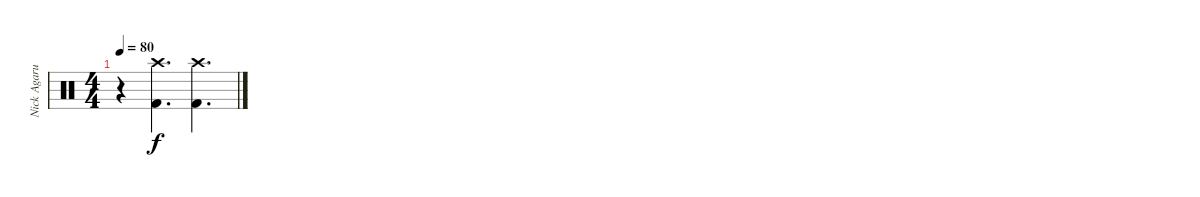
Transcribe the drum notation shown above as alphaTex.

\track ("Nick Agarua" "Nick Agaru") {instrument percussion}
\staff {score}
\articulation defaults
\ts (4 4)
\tempo 80
\clef neutral
\ks c
r.4{dy f} ("Crash high (hit)" "Kick (hit) 2").4{d} ("Crash high (hit)" "Kick (hit) 2").4{d}
